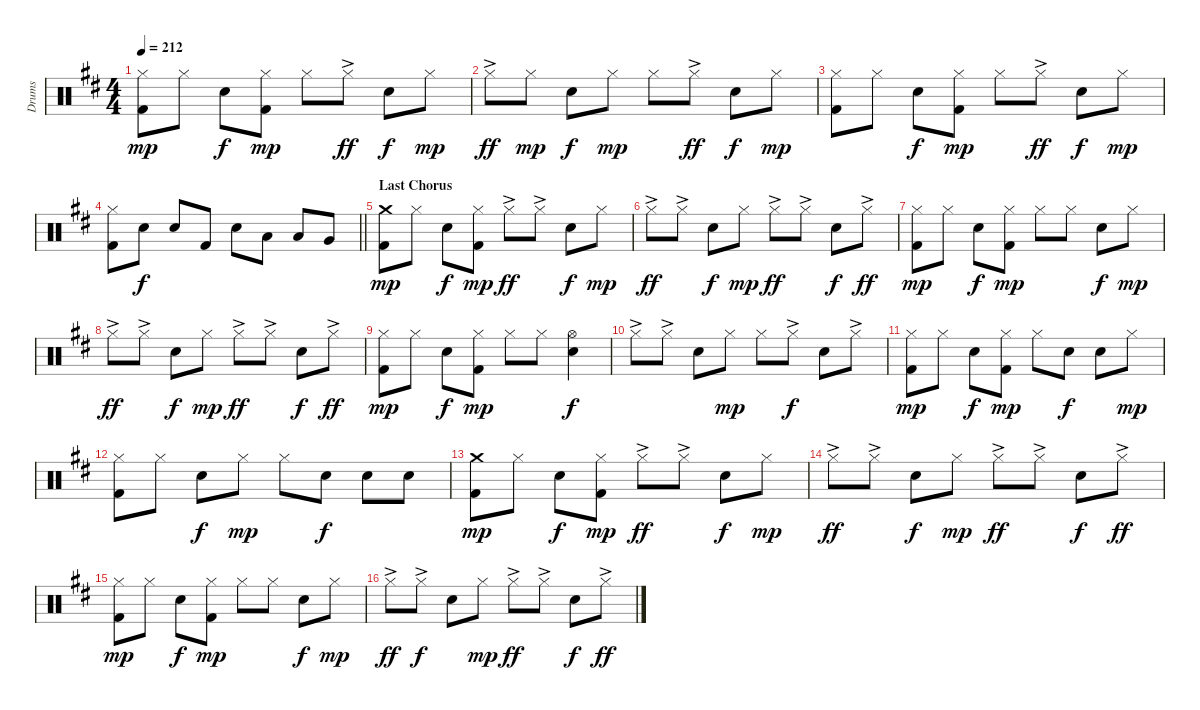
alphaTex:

\track ("Drums" "Drums") {instrument percussion}
\staff {score}
\articulation defaults
\ts (4 4)
\tempo 212
\clef neutral
\ks d
("Hi-Hat (closed)" "Kick (hit) 2").8{dy mp} "Hi-Hat (closed)".8 "Electric Snare (hit)".8{dy f} ("Hi-Hat (closed)" "Kick (hit) 2").8{dy mp} "Hi-Hat (closed)".8 "Hi-Hat (closed)"{ac}.8{dy ff} "Electric Snare (hit)".8{dy f} "Hi-Hat (closed)".8{dy mp} |
"Hi-Hat (closed)"{ac}.8{dy ff} "Hi-Hat (closed)".8{dy mp} "Electric Snare (hit)".8{dy f} "Hi-Hat (closed)".8{dy mp} "Hi-Hat (closed)".8 "Hi-Hat (closed)"{ac}.8{dy ff} "Electric Snare (hit)".8{dy f} "Hi-Hat (closed)".8{dy mp} |
("Hi-Hat (closed)" "Kick (hit) 2").8 "Hi-Hat (closed)".8 "Electric Snare (hit)".8{dy f} ("Hi-Hat (closed)" "Kick (hit) 2").8{dy mp} "Hi-Hat (closed)".8 "Hi-Hat (closed)"{ac}.8{dy ff} "Electric Snare (hit)".8{dy f} "Hi-Hat (closed)".8{dy mp} |
\barLineRight lightlight
("Hi-Hat (closed)" "Kick (hit) 2").8 "Electric Snare (hit)".8{dy f} "Electric Snare (hit)".8 "Kick (hit) 2".8 "Electric Snare (hit)".8 "Low Tom (hit)".8 "Low Tom (hit)".8 "Very Low Tom (hit)".8 |
\section ("" "Last Chorus")
("Crash medium (hit)" "Kick (hit) 2").8{dy mp} "Hi-Hat (closed)".8 "Electric Snare (hit)".8{dy f} ("Hi-Hat (closed)" "Kick (hit) 2").8{dy mp} "Hi-Hat (closed)"{ac}.8{dy ff} "Hi-Hat (closed)"{ac}.8 "Electric Snare (hit)".8{dy f} "Hi-Hat (closed)".8{dy mp} |
"Hi-Hat (closed)"{ac}.8{dy ff} "Hi-Hat (closed)"{ac}.8 "Electric Snare (hit)".8{dy f} "Hi-Hat (closed)".8{dy mp} "Hi-Hat (closed)"{ac}.8{dy ff} "Hi-Hat (closed)"{ac}.8 "Electric Snare (hit)".8{dy f} "Hi-Hat (closed)"{ac}.8{dy ff} |
("Hi-Hat (closed)" "Kick (hit) 2").8{dy mp} "Hi-Hat (closed)".8 "Electric Snare (hit)".8{dy f} ("Hi-Hat (closed)" "Kick (hit) 2").8{dy mp} "Hi-Hat (closed)".8 "Hi-Hat (closed)".8 "Electric Snare (hit)".8{dy f} "Hi-Hat (closed)".8{dy mp} |
"Hi-Hat (closed)"{ac}.8{dy ff} "Hi-Hat (closed)"{ac}.8 "Electric Snare (hit)".8{dy f} "Hi-Hat (closed)".8{dy mp} "Hi-Hat (closed)"{ac}.8{dy ff} "Hi-Hat (closed)"{ac}.8 "Electric Snare (hit)".8{dy f} "Hi-Hat (closed)"{ac}.8{dy ff} |
("Hi-Hat (closed)" "Kick (hit) 2").8{dy mp} "Hi-Hat (closed)".8 "Electric Snare (hit)".8{dy f} ("Hi-Hat (closed)" "Kick (hit) 2").8{dy mp} "Hi-Hat (closed)".8 "Hi-Hat (closed)".8 ("Hi-Hat (open)" "Electric Snare (hit)").4{dy f} |
"Hi-Hat (closed)"{ac}.8 "Hi-Hat (closed)"{ac}.8 "Electric Snare (hit)".8 "Hi-Hat (closed)".8{dy mp} "Hi-Hat (closed)".8 "Hi-Hat (closed)"{ac}.8{dy f} "Electric Snare (hit)".8 "Hi-Hat (closed)"{ac}.8 |
("Hi-Hat (closed)" "Kick (hit) 2").8{dy mp} "Hi-Hat (closed)".8 "Electric Snare (hit)".8{dy f} ("Hi-Hat (closed)" "Kick (hit) 2").8{dy mp} "Hi-Hat (closed)".8 "Electric Snare (hit)".8{dy f} "Electric Snare (hit)".8 "Hi-Hat (closed)".8{dy mp} |
("Hi-Hat (closed)" "Kick (hit) 2").8 "Hi-Hat (closed)".8 "Electric Snare (hit)".8{dy f} "Hi-Hat (closed)".8{dy mp} "Hi-Hat (closed)".8 "Electric Snare (hit)".8{dy f} "Electric Snare (hit)".8 "Electric Snare (hit)".8 |
("Crash medium (hit)" "Kick (hit) 2").8{dy mp} "Hi-Hat (closed)".8 "Electric Snare (hit)".8{dy f} ("Hi-Hat (closed)" "Kick (hit) 2").8{dy mp} "Hi-Hat (closed)"{ac}.8{dy ff} "Hi-Hat (closed)"{ac}.8 "Electric Snare (hit)".8{dy f} "Hi-Hat (closed)".8{dy mp} |
"Hi-Hat (closed)"{ac}.8{dy ff} "Hi-Hat (closed)"{ac}.8 "Electric Snare (hit)".8{dy f} "Hi-Hat (closed)".8{dy mp} "Hi-Hat (closed)"{ac}.8{dy ff} "Hi-Hat (closed)"{ac}.8 "Electric Snare (hit)".8{dy f} "Hi-Hat (closed)"{ac}.8{dy ff} |
("Hi-Hat (closed)" "Kick (hit) 2").8{dy mp} "Hi-Hat (closed)".8 "Electric Snare (hit)".8{dy f} ("Hi-Hat (closed)" "Kick (hit) 2").8{dy mp} "Hi-Hat (closed)".8 "Hi-Hat (closed)".8 "Electric Snare (hit)".8{dy f} "Hi-Hat (closed)".8{dy mp} |
"Hi-Hat (closed)"{ac}.8{dy ff} "Hi-Hat (closed)"{ac}.8{dy f} "Electric Snare (hit)".8 "Hi-Hat (closed)".8{dy mp} "Hi-Hat (closed)"{ac}.8{dy ff} "Hi-Hat (closed)"{ac}.8 "Electric Snare (hit)".8{dy f} "Hi-Hat (closed)"{ac}.8{dy ff}
